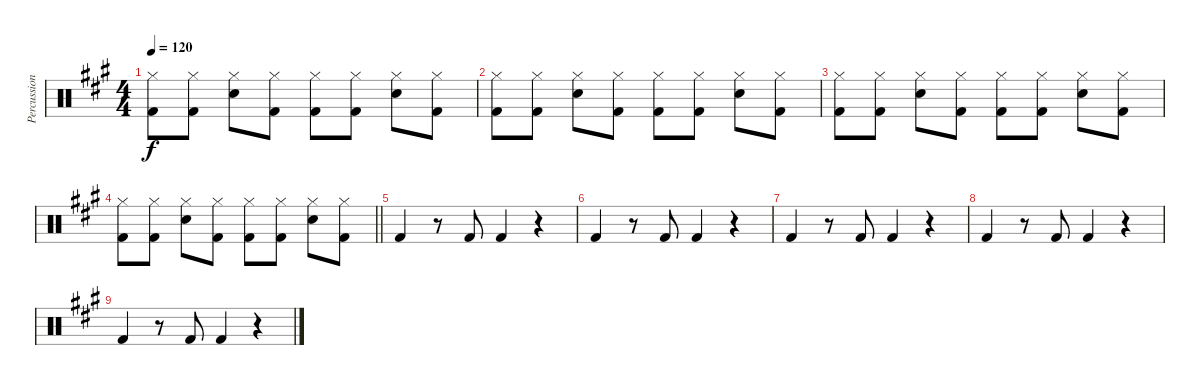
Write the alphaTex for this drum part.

\track ("Percussion" "Percussion") {instrument percussion}
\staff {score}
\articulation defaults
\ts (4 4)
\tempo 120
\clef neutral
\ks a
("Hi-Hat (closed)" "Kick (hit) 2").8{dy f} ("Hi-Hat (closed)" "Kick (hit) 2").8 ("Hi-Hat (closed)" "Snare (hit) 2").8 ("Hi-Hat (closed)" "Kick (hit) 2").8 ("Hi-Hat (closed)" "Kick (hit) 2").8 ("Hi-Hat (closed)" "Kick (hit) 2").8 ("Hi-Hat (closed)" "Snare (hit) 2").8 ("Hi-Hat (closed)" "Kick (hit) 2").8 |
("Hi-Hat (closed)" "Kick (hit) 2").8 ("Hi-Hat (closed)" "Kick (hit) 2").8 ("Hi-Hat (closed)" "Snare (hit) 2").8 ("Hi-Hat (closed)" "Kick (hit) 2").8 ("Hi-Hat (closed)" "Kick (hit) 2").8 ("Hi-Hat (closed)" "Kick (hit) 2").8 ("Hi-Hat (closed)" "Snare (hit) 2").8 ("Hi-Hat (closed)" "Kick (hit) 2").8 |
("Hi-Hat (closed)" "Kick (hit) 2").8 ("Hi-Hat (closed)" "Kick (hit) 2").8 ("Hi-Hat (closed)" "Snare (hit) 2").8 ("Hi-Hat (closed)" "Kick (hit) 2").8 ("Hi-Hat (closed)" "Kick (hit) 2").8 ("Hi-Hat (closed)" "Kick (hit) 2").8 ("Hi-Hat (closed)" "Snare (hit) 2").8 ("Hi-Hat (closed)" "Kick (hit) 2").8 |
\barLineRight lightlight
("Hi-Hat (closed)" "Kick (hit) 2").8 ("Hi-Hat (closed)" "Kick (hit) 2").8 ("Hi-Hat (closed)" "Snare (hit) 2").8 ("Hi-Hat (closed)" "Kick (hit) 2").8 ("Hi-Hat (closed)" "Kick (hit) 2").8 ("Hi-Hat (closed)" "Kick (hit) 2").8 ("Hi-Hat (closed)" "Snare (hit) 2").8 ("Hi-Hat (closed)" "Kick (hit) 2").8 |
"Kick (hit) 2".4 r.8 "Kick (hit) 2".8 "Kick (hit) 2".4 r.4 |
"Kick (hit) 2".4 r.8 "Kick (hit) 2".8 "Kick (hit) 2".4 r.4 |
"Kick (hit) 2".4 r.8 "Kick (hit) 2".8 "Kick (hit) 2".4 r.4 |
"Kick (hit) 2".4 r.8 "Kick (hit) 2".8 "Kick (hit) 2".4 r.4 |
"Kick (hit) 2".4 r.8 "Kick (hit) 2".8 "Kick (hit) 2".4 r.4
